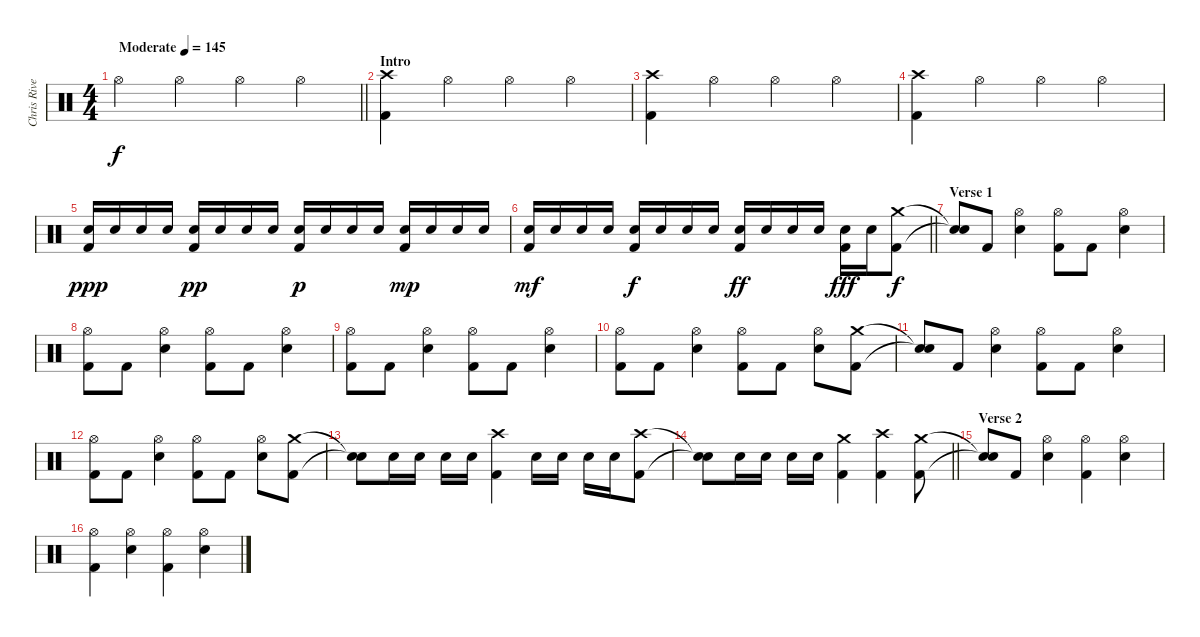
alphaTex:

\track ("Chris Rivers" "Chris Rive") {instrument percussion}
\staff {score}
\articulation defaults
\ts (4 4)
\tempo (145 "Moderate")
\clef neutral
\barLineRight lightlight
\ks c "Hi-Hat (open)".4{dy f} "Hi-Hat (open)".4 "Hi-Hat (open)".4 "Hi-Hat (open)".4
|
\section ("" "Intro")
("Crash high (hit)" "Kick (hit) 2").4 "Hi-Hat (open)".4 "Hi-Hat (open)".4 "Hi-Hat (open)".4 |
("Crash high (hit)" "Kick (hit) 2").4 "Hi-Hat (open)".4 "Hi-Hat (open)".4 "Hi-Hat (open)".4 |
("Crash high (hit)" "Kick (hit) 2").4 "Hi-Hat (open)".4 "Hi-Hat (open)".4 "Hi-Hat (open)".4 |
("Electric Snare (hit)" "Kick (hit) 2").16{dy ppp} "Electric Snare (hit)".16 "Electric Snare (hit)".16 "Electric Snare (hit)".16 ("Electric Snare (hit)" "Kick (hit) 2").16{dy pp} "Electric Snare (hit)".16 "Electric Snare (hit)".16 "Electric Snare (hit)".16 ("Electric Snare (hit)" "Kick (hit) 2").16{dy p} "Electric Snare (hit)".16 "Electric Snare (hit)".16 "Electric Snare (hit)".16 ("Electric Snare (hit)" "Kick (hit) 2").16{dy mp} "Electric Snare (hit)".16 "Electric Snare (hit)".16 "Electric Snare (hit)".16 |
\barLineRight lightlight
("Electric Snare (hit)" "Kick (hit) 2").16{dy mf} "Electric Snare (hit)".16 "Electric Snare (hit)".16 "Electric Snare (hit)".16 ("Electric Snare (hit)" "Kick (hit) 2").16{dy f} "Electric Snare (hit)".16 "Electric Snare (hit)".16 "Electric Snare (hit)".16 ("Electric Snare (hit)" "Kick (hit) 2").16{dy ff} "Electric Snare (hit)".16 "Electric Snare (hit)".16 "Electric Snare (hit)".16 ("Electric Snare (hit)" "Kick (hit) 2").16{dy fff} "Electric Snare (hit)".16 ("Crash medium (hit)" "Kick (hit) 2").8{dy f} |
\section ("" "Verse 1")
("Snare (hit)"{t} "Snare (hit)"{t}).8 "Kick (hit) 2".8 ("Hi-Hat (open)" "Electric Snare (hit)").4 ("Hi-Hat (open)" "Kick (hit) 2").8 "Kick (hit) 2".8 ("Hi-Hat (open)" "Electric Snare (hit)").4 |
("Hi-Hat (open)" "Kick (hit) 2").8 "Kick (hit) 2".8 ("Hi-Hat (open)" "Electric Snare (hit)").4 ("Hi-Hat (open)" "Kick (hit) 2").8 "Kick (hit) 2".8 ("Hi-Hat (open)" "Electric Snare (hit)").4 |
("Hi-Hat (open)" "Kick (hit) 2").8 "Kick (hit) 2".8 ("Hi-Hat (open)" "Electric Snare (hit)").4 ("Hi-Hat (open)" "Kick (hit) 2").8 "Kick (hit) 2".8 ("Hi-Hat (open)" "Electric Snare (hit)").4 |
("Hi-Hat (open)" "Kick (hit) 2").8 "Kick (hit) 2".8 ("Hi-Hat (open)" "Electric Snare (hit)").4 ("Hi-Hat (open)" "Kick (hit) 2").8 "Kick (hit) 2".8 ("Hi-Hat (open)" "Electric Snare (hit)").8 ("Crash medium (hit)" "Kick (hit) 2").8 |
("Snare (hit)"{t} "Snare (hit)"{t}).8 "Kick (hit) 2".8 ("Hi-Hat (open)" "Electric Snare (hit)").4 ("Hi-Hat (open)" "Kick (hit) 2").8 "Kick (hit) 2".8 ("Hi-Hat (open)" "Electric Snare (hit)").4 |
("Hi-Hat (open)" "Kick (hit) 2").8 "Kick (hit) 2".8 ("Hi-Hat (open)" "Electric Snare (hit)").4 ("Hi-Hat (open)" "Kick (hit) 2").8 "Kick (hit) 2".8 ("Hi-Hat (open)" "Electric Snare (hit)").8 ("Crash medium (hit)" "Kick (hit) 2").8 |
("Snare (hit)"{t} "Snare (hit)"{t}).8 "Electric Snare (hit)".16 "Electric Snare (hit)".16 "Electric Snare (hit)".16 "Electric Snare (hit)".16 ("Crash high (hit)" "Kick (hit) 2").4 "Electric Snare (hit)".16 "Electric Snare (hit)".16 "Electric Snare (hit)".16 "Electric Snare (hit)".16 ("Crash high (hit)" "Kick (hit) 2").8 |
\barLineRight lightlight
("Snare (hit)"{t} "Snare (hit)"{t}).8 "Electric Snare (hit)".16 "Electric Snare (hit)".16 "Electric Snare (hit)".16 "Electric Snare (hit)".16 ("Crash medium (hit)" "Kick (hit) 2").4 ("Crash high (hit)" "Kick (hit) 2").4 ("Crash medium (hit)" "Kick (hit) 2").8 |
\section ("" "Verse 2")
("Snare (hit)"{t} "Snare (hit)"{t}).8 "Kick (hit) 2".8 ("Hi-Hat (open)" "Electric Snare (hit)").4 ("Hi-Hat (open)" "Kick (hit) 2").4 ("Hi-Hat (open)" "Electric Snare (hit)").4 |
("Hi-Hat (open)" "Kick (hit) 2").4 ("Hi-Hat (open)" "Electric Snare (hit)").4 ("Hi-Hat (open)" "Kick (hit) 2").4 ("Hi-Hat (open)" "Electric Snare (hit)").4
